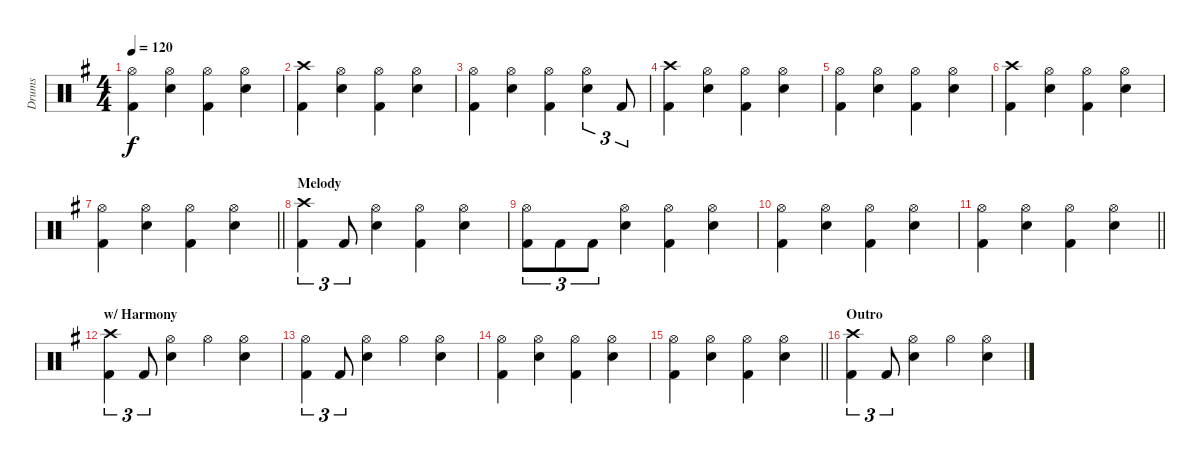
\track ("Drums" "Drums") {instrument percussion}
\staff {score}
\articulation defaults
\ts (4 4)
\tempo 120
\clef neutral
\ks g
("Hi-Hat (open)" "Kick (hit) 2").4{dy f} ("Hi-Hat (open)" "Snare (hit) 2").4 ("Hi-Hat (open)" "Kick (hit) 2").4 ("Hi-Hat (open)" "Snare (hit) 2").4 |
("Crash high (hit)" "Kick (hit) 2").4 ("Hi-Hat (open)" "Snare (hit) 2").4 ("Hi-Hat (open)" "Kick (hit) 2").4 ("Hi-Hat (open)" "Snare (hit) 2").4 |
("Hi-Hat (open)" "Kick (hit) 2").4 ("Hi-Hat (open)" "Snare (hit) 2").4 ("Hi-Hat (open)" "Kick (hit) 2").4 ("Hi-Hat (open)" "Snare (hit) 2").4{tu (3 2)} "Kick (hit) 2".8{tu (3 2)} |
("Crash high (hit)" "Kick (hit) 2").4 ("Hi-Hat (open)" "Snare (hit) 2").4 ("Hi-Hat (open)" "Kick (hit) 2").4 ("Hi-Hat (open)" "Snare (hit) 2").4 |
("Hi-Hat (open)" "Kick (hit) 2").4 ("Hi-Hat (open)" "Snare (hit) 2").4 ("Hi-Hat (open)" "Kick (hit) 2").4 ("Hi-Hat (open)" "Snare (hit) 2").4 |
("Crash high (hit)" "Kick (hit) 2").4 ("Hi-Hat (open)" "Snare (hit) 2").4 ("Hi-Hat (open)" "Kick (hit) 2").4 ("Hi-Hat (open)" "Snare (hit) 2").4 |
\barLineRight lightlight
("Hi-Hat (open)" "Kick (hit) 2").4 ("Hi-Hat (open)" "Snare (hit) 2").4 ("Hi-Hat (open)" "Kick (hit) 2").4 ("Hi-Hat (open)" "Snare (hit) 2").4 |
\section ("" "Melody")
("Crash high (hit)" "Kick (hit) 2").4{tu (3 2)} "Kick (hit) 2".8{tu (3 2)} ("Hi-Hat (open)" "Snare (hit) 2").4 ("Hi-Hat (open)" "Kick (hit) 2").4 ("Hi-Hat (open)" "Snare (hit) 2").4 |
("Hi-Hat (open)" "Kick (hit) 2").8{tu (3 2)} "Kick (hit) 2".8{tu (3 2)} "Kick (hit) 2".8{tu (3 2)} ("Hi-Hat (open)" "Snare (hit) 2").4 ("Hi-Hat (open)" "Kick (hit) 2").4 ("Hi-Hat (open)" "Snare (hit) 2").4 |
("Hi-Hat (open)" "Kick (hit) 2").4 ("Hi-Hat (open)" "Snare (hit) 2").4 ("Hi-Hat (open)" "Kick (hit) 2").4 ("Hi-Hat (open)" "Snare (hit) 2").4 |
\barLineRight lightlight
("Hi-Hat (open)" "Kick (hit) 2").4 ("Hi-Hat (open)" "Snare (hit) 2").4 ("Hi-Hat (open)" "Kick (hit) 2").4 ("Hi-Hat (open)" "Snare (hit) 2").4 |
\section ("" "w/ Harmony")
("Crash high (hit)" "Kick (hit) 2").4{tu (3 2)} "Kick (hit) 2".8{tu (3 2)} ("Hi-Hat (open)" "Snare (hit) 2").4 "Hi-Hat (open)".4 ("Hi-Hat (open)" "Snare (hit) 2").4 |
("Hi-Hat (open)" "Kick (hit) 2").4{tu (3 2)} "Kick (hit) 2".8{tu (3 2)} ("Hi-Hat (open)" "Snare (hit) 2").4 "Hi-Hat (open)".4 ("Hi-Hat (open)" "Snare (hit) 2").4 |
("Hi-Hat (open)" "Kick (hit) 2").4 ("Hi-Hat (open)" "Snare (hit) 2").4 ("Hi-Hat (open)" "Kick (hit) 2").4 ("Hi-Hat (open)" "Snare (hit) 2").4 |
\barLineRight lightlight
("Hi-Hat (open)" "Kick (hit) 2").4 ("Hi-Hat (open)" "Snare (hit) 2").4 ("Hi-Hat (open)" "Kick (hit) 2").4 ("Hi-Hat (open)" "Snare (hit) 2").4 |
\section ("" "Outro")
("Crash high (hit)" "Kick (hit) 2").4{tu (3 2)} "Kick (hit) 2".8{tu (3 2)} ("Hi-Hat (open)" "Snare (hit) 2").4 "Hi-Hat (open)".4 ("Hi-Hat (open)" "Snare (hit) 2").4
